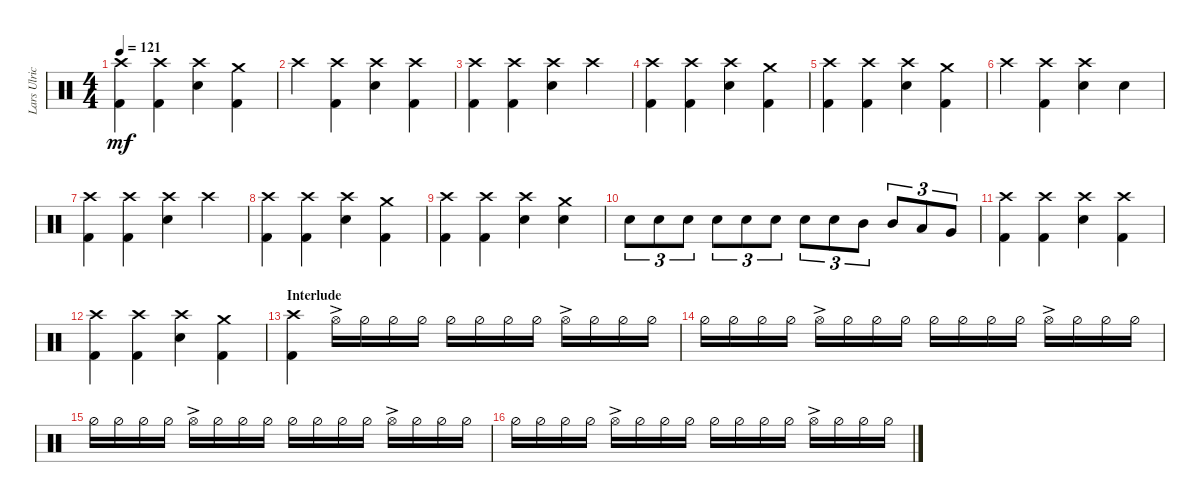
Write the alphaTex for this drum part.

\track ("Lars Ulrich" "Lars Ulric") {instrument percussion}
\staff {score}
\articulation defaults
\ts (4 4)
\tempo 121
\clef neutral
\ks c
("Crash high (hit)" "Kick (hit) 2").4{dy mf} ("Crash high (hit)" "Kick (hit) 2").4 ("Crash high (hit)" "Snare (hit) 2").4 ("Kick (hit) 2" "Crash medium (hit)").4 |
"Crash high (hit)".4 ("Crash high (hit)" "Kick (hit) 2").4 ("Crash high (hit)" "Snare (hit) 2").4 ("Crash high (hit)" "Kick (hit) 2").4 |
("Crash high (hit)" "Kick (hit) 2").4 ("Crash high (hit)" "Kick (hit) 2").4 ("Crash high (hit)" "Snare (hit) 2").4 "Crash high (hit)".4 |
("Crash high (hit)" "Kick (hit) 2").4 ("Crash high (hit)" "Kick (hit) 2").4 ("Crash high (hit)" "Snare (hit) 2").4 ("Kick (hit) 2" "Crash medium (hit)").4 |
("Crash high (hit)" "Kick (hit) 2").4 ("Crash high (hit)" "Kick (hit) 2").4 ("Crash high (hit)" "Snare (hit) 2").4 ("Kick (hit) 2" "Crash medium (hit)").4 |
"Crash high (hit)".4 ("Crash high (hit)" "Kick (hit) 2").4 ("Crash high (hit)" "Snare (hit) 2").4 "Snare (hit) 2".4 |
("Crash high (hit)" "Kick (hit) 2").4 ("Crash high (hit)" "Kick (hit) 2").4 ("Crash high (hit)" "Snare (hit) 2").4 "Crash high (hit)".4 |
("Crash high (hit)" "Kick (hit) 2").4 ("Crash high (hit)" "Kick (hit) 2").4 ("Crash high (hit)" "Snare (hit) 2").4 ("Kick (hit) 2" "Crash medium (hit)").4 |
("Crash high (hit)" "Kick (hit) 2").4 ("Crash high (hit)" "Kick (hit) 2").4 ("Crash high (hit)" "Snare (hit) 2").4 ("Crash medium (hit)" "Snare (hit) 2").4 |
"Snare (hit) 2".8{tu (3 2)} "Snare (hit) 2".8{tu (3 2)} "Snare (hit) 2".8{tu (3 2)} "Snare (hit) 2".8{tu (3 2)} "Snare (hit) 2".8{tu (3 2)} "Snare (hit) 2".8{tu (3 2)} "Snare (hit) 2".8{tu (3 2)} "Snare (hit) 2".8{tu (3 2)} "Mid Tom (hit)".8{tu (3 2)} "Mid Tom (hit)".8{tu (3 2)} "Low Tom (hit)".8{tu (3 2)} "Very Low Tom (hit)".8{tu (3 2)} |
("Crash high (hit)" "Kick (hit) 2").4 ("Crash high (hit)" "Kick (hit) 2").4 ("Crash high (hit)" "Snare (hit) 2").4 ("Crash high (hit)" "Kick (hit) 2").4 |
("Crash high (hit)" "Kick (hit) 2").4 ("Crash high (hit)" "Kick (hit) 2").4 ("Crash high (hit)" "Snare (hit) 2").4 ("Kick (hit) 2" "Crash medium (hit)").4 |
\section ("" "Interlude")
("Crash high (hit)" "Kick (hit) 2").4 "Hi-Hat (open)"{ac}.16 "Hi-Hat (half)".16 "Hi-Hat (half)".16 "Hi-Hat (half)".16 "Hi-Hat (half)".16 "Hi-Hat (half)".16 "Hi-Hat (half)".16 "Hi-Hat (half)".16 "Hi-Hat (open)"{ac}.16 "Hi-Hat (half)".16 "Hi-Hat (half)".16 "Hi-Hat (half)".16 |
"Hi-Hat (half)".16 "Hi-Hat (half)".16 "Hi-Hat (half)".16 "Hi-Hat (half)".16 "Hi-Hat (open)"{ac}.16 "Hi-Hat (half)".16 "Hi-Hat (half)".16 "Hi-Hat (half)".16 "Hi-Hat (half)".16 "Hi-Hat (half)".16 "Hi-Hat (half)".16 "Hi-Hat (half)".16 "Hi-Hat (open)"{ac}.16 "Hi-Hat (half)".16 "Hi-Hat (half)".16 "Hi-Hat (half)".16 |
"Hi-Hat (half)".16 "Hi-Hat (half)".16 "Hi-Hat (half)".16 "Hi-Hat (half)".16 "Hi-Hat (open)"{ac}.16 "Hi-Hat (half)".16 "Hi-Hat (half)".16 "Hi-Hat (half)".16 "Hi-Hat (half)".16 "Hi-Hat (half)".16 "Hi-Hat (half)".16 "Hi-Hat (half)".16 "Hi-Hat (open)"{ac}.16 "Hi-Hat (half)".16 "Hi-Hat (half)".16 "Hi-Hat (half)".16 |
"Hi-Hat (half)".16 "Hi-Hat (half)".16 "Hi-Hat (half)".16 "Hi-Hat (half)".16 "Hi-Hat (open)"{ac}.16 "Hi-Hat (half)".16 "Hi-Hat (half)".16 "Hi-Hat (half)".16 "Hi-Hat (half)".16 "Hi-Hat (half)".16 "Hi-Hat (half)".16 "Hi-Hat (half)".16 "Hi-Hat (open)"{ac}.16 "Hi-Hat (half)".16 "Hi-Hat (half)".16 "Hi-Hat (half)".16
